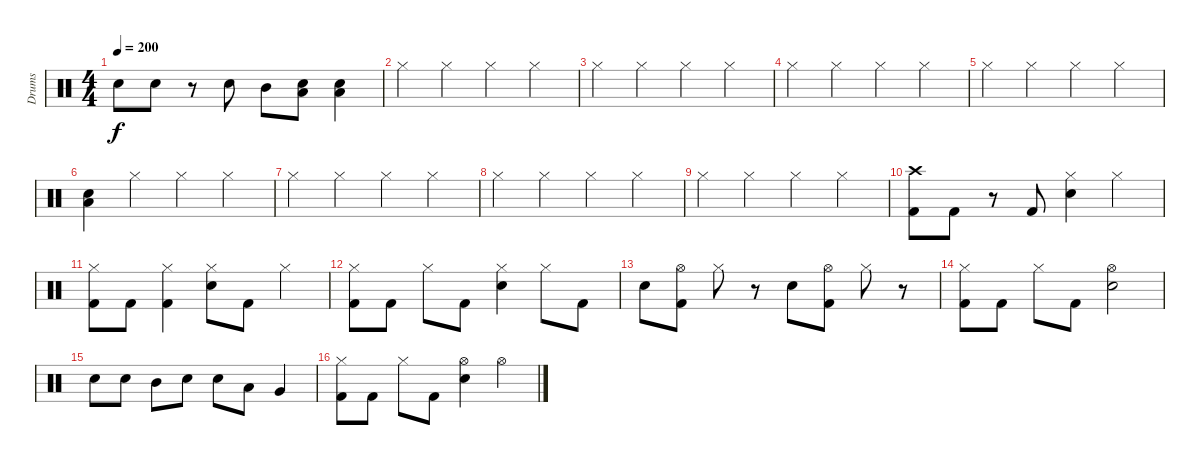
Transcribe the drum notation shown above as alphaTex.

\track ("Drums" "Drums") {instrument percussion}
\staff {score}
\articulation defaults
\ts (4 4)
\tempo 200
\clef neutral
\ks c "Electric Snare (hit)".8{dy f} "Electric Snare (hit)".8
r.8 "Electric Snare (hit)".8 "Mid Tom (hit)".8 ("Electric Snare (hit)" "Low Tom (hit)").8 ("Electric Snare (hit)" "Low Tom (hit)").4 |
"Hi-Hat (closed)".4 "Hi-Hat (closed)".4 "Hi-Hat (closed)".4 "Hi-Hat (closed)".4 |
"Hi-Hat (closed)".4 "Hi-Hat (closed)".4 "Hi-Hat (closed)".4 "Hi-Hat (closed)".4 |
"Hi-Hat (closed)".4 "Hi-Hat (closed)".4 "Hi-Hat (closed)".4 "Hi-Hat (closed)".4 |
"Hi-Hat (closed)".4 "Hi-Hat (closed)".4 "Hi-Hat (closed)".4 "Hi-Hat (closed)".4 |
("Electric Snare (hit)" "Low Tom (hit)").4 "Hi-Hat (closed)".4 "Hi-Hat (closed)".4 "Hi-Hat (closed)".4 |
"Hi-Hat (closed)".4 "Hi-Hat (closed)".4 "Hi-Hat (closed)".4 "Hi-Hat (closed)".4 |
"Hi-Hat (closed)".4 "Hi-Hat (closed)".4 "Hi-Hat (closed)".4 "Hi-Hat (closed)".4 |
"Hi-Hat (closed)".4 "Hi-Hat (closed)".4 "Hi-Hat (closed)".4 "Hi-Hat (closed)".4 |
("Crash high (hit)" "Kick (hit) 2").8 "Kick (hit) 2".8 r.8 "Kick (hit) 2".8 ("Hi-Hat (closed)" "Electric Snare (hit)").4 "Hi-Hat (closed)".4 |
("Hi-Hat (closed)" "Kick (hit) 2").8 "Kick (hit) 2".8 ("Hi-Hat (closed)" "Kick (hit) 2").4 ("Hi-Hat (closed)" "Electric Snare (hit)").8 "Kick (hit) 2".8 "Hi-Hat (closed)".4 |
("Hi-Hat (closed)" "Kick (hit) 2").8 "Kick (hit) 2".8 "Hi-Hat (closed)".8 "Kick (hit) 2".8 ("Hi-Hat (closed)" "Electric Snare (hit)").4 "Hi-Hat (closed)".8 "Kick (hit) 2".8 |
"Electric Snare (hit)".8 ("Hi-Hat (open)" "Kick (hit) 2").8 "Hi-Hat (closed)".8 r.8 "Electric Snare (hit)".8 ("Hi-Hat (open)" "Kick (hit) 2").8 "Hi-Hat (closed)".8 r.8 |
("Hi-Hat (closed)" "Kick (hit) 2").8 "Kick (hit) 2".8 "Hi-Hat (closed)".8 "Kick (hit) 2".8 ("Hi-Hat (open)" "Electric Snare (hit)").2 |
"Electric Snare (hit)".8 "Electric Snare (hit)".8 "Mid Tom (hit)".8 "Electric Snare (hit)".8 "Electric Snare (hit)".8 "Low Tom (hit)".8 "Very Low Tom (hit)".4 |
("Hi-Hat (closed)" "Kick (hit) 2").8 "Kick (hit) 2".8 "Hi-Hat (closed)".8 "Kick (hit) 2".8 ("Hi-Hat (open)" "Electric Snare (hit)").4 "Hi-Hat (open)".4
